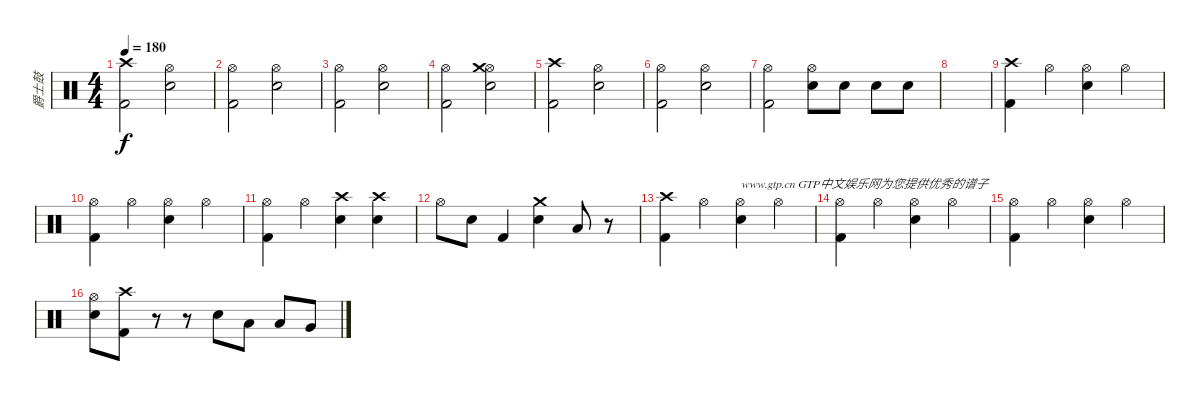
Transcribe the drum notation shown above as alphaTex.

\track ("爵士鼓" "爵士鼓") {instrument percussion}
\staff {score}
\articulation defaults
\ts (4 4)
\tempo 180
\clef neutral
\ks c
("Crash high (hit)" "Kick (hit) 2").2{dy f} ("Hi-Hat (open)" "Snare (hit) 2").2 |
("Hi-Hat (open)" "Kick (hit) 2").2 ("Hi-Hat (open)" "Snare (hit) 2").2 |
("Hi-Hat (open)" "Kick (hit) 2").2 ("Hi-Hat (open)" "Snare (hit) 2").2 |
("Hi-Hat (open)" "Kick (hit) 2").2 ("Hi-Hat (open)" "Snare (hit) 2" "Crash medium (hit)").2 |
("Crash high (hit)" "Kick (hit) 2").2 ("Hi-Hat (open)" "Snare (hit) 2").2 |
("Hi-Hat (open)" "Kick (hit) 2").2 ("Hi-Hat (open)" "Snare (hit) 2").2 |
("Hi-Hat (open)" "Kick (hit) 2").2 ("Hi-Hat (open)" "Snare (hit) 2").8 "Snare (hit) 2".8 "Snare (hit) 2".8 "Snare (hit) 2".8 |
|
("Crash high (hit)" "Kick (hit) 2").4 "Hi-Hat (open)".4 ("Hi-Hat (open)" "Snare (hit) 2").4 "Hi-Hat (open)".4 |
("Hi-Hat (open)" "Kick (hit) 2").4 "Hi-Hat (open)".4 ("Hi-Hat (open)" "Snare (hit) 2").4 "Hi-Hat (open)".4 |
("Hi-Hat (open)" "Kick (hit) 2").4 "Hi-Hat (open)".4 ("Crash high (hit)" "Snare (hit) 2").4 ("Crash high (hit)" "Snare (hit) 2").4 |
"Hi-Hat (open)".8 "Snare (hit) 2".8 "Kick (hit) 2".4 ("Snare (hit) 2" "Crash medium (hit)").4 "Low Floor Tom (hit)".8 r.8 |
("Crash high (hit)" "Kick (hit) 2").4 "Hi-Hat (open)".4 ("Hi-Hat (open)" "Snare (hit) 2").4{txt "www.gtp.cn GTP中文娱乐网为您提供优秀的谱子"} "Hi-Hat (open)".4 |
("Hi-Hat (open)" "Kick (hit) 2").4 "Hi-Hat (open)".4 ("Hi-Hat (open)" "Snare (hit) 2").4 "Hi-Hat (open)".4 |
("Hi-Hat (open)" "Kick (hit) 2").4 "Hi-Hat (open)".4 ("Hi-Hat (open)" "Snare (hit) 2").4 "Hi-Hat (open)".4 |
("Hi-Hat (open)" "Snare (hit) 2").8 ("Kick (hit) 2" "Crash high (hit)").8 r.8 r.8 "Snare (hit) 2".8 "Low Floor Tom (hit)".8 "Low Tom (hit)".8 "Very Low Tom (hit)".8
